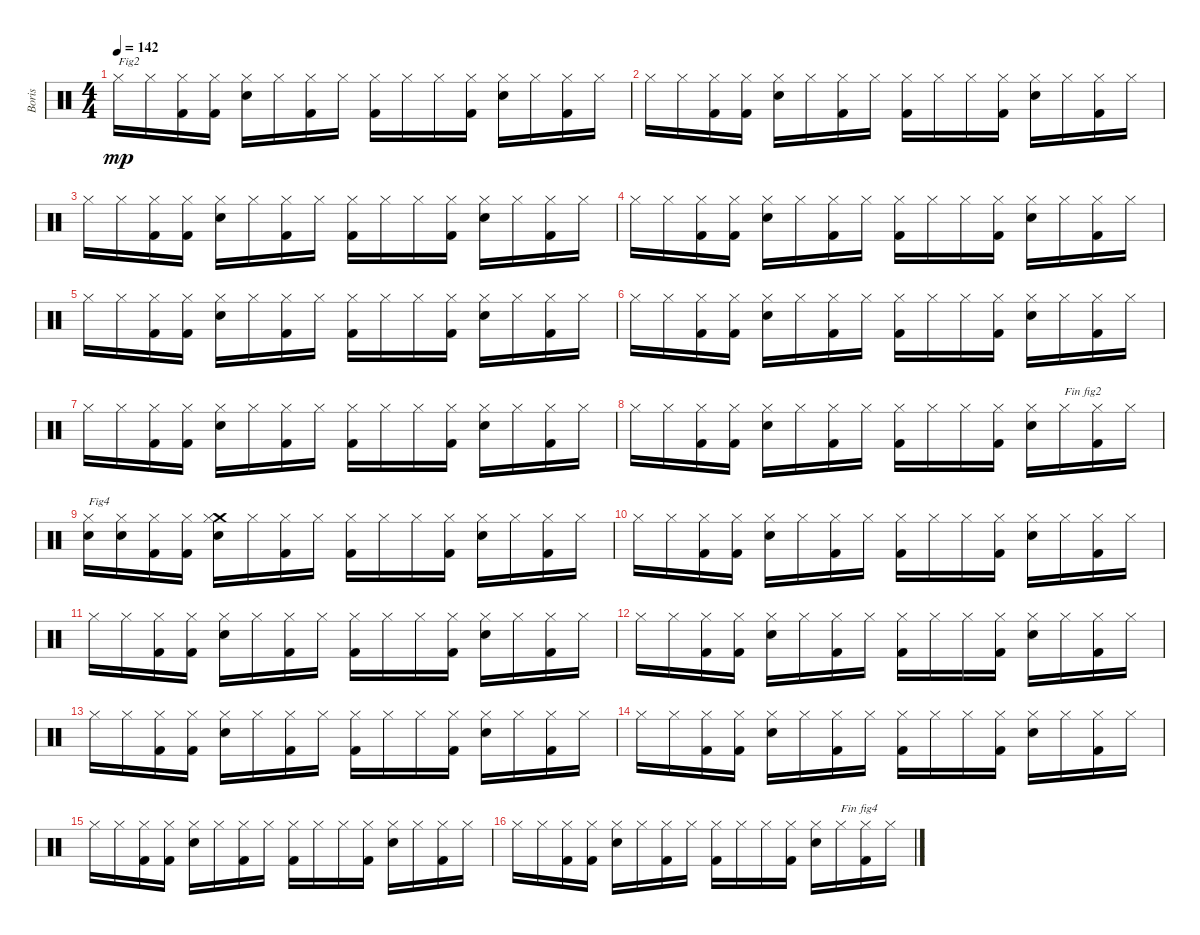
\track ("Boris" "Boris") {instrument percussion}
\staff {score}
\articulation defaults
\ts (4 4)
\tempo 142
\clef neutral
\ks c "Hi-Hat (closed)".16{txt "Fig2" dy mp} "Hi-Hat (closed)".16
("Kick (hit) 2" "Hi-Hat (closed)").16 ("Kick (hit) 2" "Hi-Hat (closed)").16 ("Snare (hit) 2" "Hi-Hat (closed)").16 "Hi-Hat (closed)".16 ("Kick (hit) 2" "Hi-Hat (closed)").16 "Hi-Hat (closed)".16 ("Kick (hit) 2" "Hi-Hat (closed)").16 "Hi-Hat (closed)".16 "Hi-Hat (closed)".16 ("Kick (hit) 2" "Hi-Hat (closed)").16 ("Snare (hit) 2" "Hi-Hat (closed)").16 "Hi-Hat (closed)".16 ("Kick (hit) 2" "Hi-Hat (closed)").16 "Hi-Hat (closed)".16 |
"Hi-Hat (closed)".16 "Hi-Hat (closed)".16 ("Kick (hit) 2" "Hi-Hat (closed)").16 ("Kick (hit) 2" "Hi-Hat (closed)").16 ("Snare (hit) 2" "Hi-Hat (closed)").16 "Hi-Hat (closed)".16 ("Kick (hit) 2" "Hi-Hat (closed)").16 "Hi-Hat (closed)".16 ("Kick (hit) 2" "Hi-Hat (closed)").16 "Hi-Hat (closed)".16 "Hi-Hat (closed)".16 ("Kick (hit) 2" "Hi-Hat (closed)").16 ("Snare (hit) 2" "Hi-Hat (closed)").16 "Hi-Hat (closed)".16 ("Kick (hit) 2" "Hi-Hat (closed)").16 "Hi-Hat (closed)".16 |
"Hi-Hat (closed)".16 "Hi-Hat (closed)".16 ("Kick (hit) 2" "Hi-Hat (closed)").16 ("Kick (hit) 2" "Hi-Hat (closed)").16 ("Snare (hit) 2" "Hi-Hat (closed)").16 "Hi-Hat (closed)".16 ("Kick (hit) 2" "Hi-Hat (closed)").16 "Hi-Hat (closed)".16 ("Kick (hit) 2" "Hi-Hat (closed)").16 "Hi-Hat (closed)".16 "Hi-Hat (closed)".16 ("Kick (hit) 2" "Hi-Hat (closed)").16 ("Snare (hit) 2" "Hi-Hat (closed)").16 "Hi-Hat (closed)".16 ("Kick (hit) 2" "Hi-Hat (closed)").16 "Hi-Hat (closed)".16 |
"Hi-Hat (closed)".16 "Hi-Hat (closed)".16 ("Kick (hit) 2" "Hi-Hat (closed)").16 ("Kick (hit) 2" "Hi-Hat (closed)").16 ("Snare (hit) 2" "Hi-Hat (closed)").16 "Hi-Hat (closed)".16 ("Kick (hit) 2" "Hi-Hat (closed)").16 "Hi-Hat (closed)".16 ("Kick (hit) 2" "Hi-Hat (closed)").16 "Hi-Hat (closed)".16 "Hi-Hat (closed)".16 ("Kick (hit) 2" "Hi-Hat (closed)").16 ("Snare (hit) 2" "Hi-Hat (closed)").16 "Hi-Hat (closed)".16 ("Kick (hit) 2" "Hi-Hat (closed)").16 "Hi-Hat (closed)".16 |
"Hi-Hat (closed)".16 "Hi-Hat (closed)".16 ("Kick (hit) 2" "Hi-Hat (closed)").16 ("Kick (hit) 2" "Hi-Hat (closed)").16 ("Snare (hit) 2" "Hi-Hat (closed)").16 "Hi-Hat (closed)".16 ("Kick (hit) 2" "Hi-Hat (closed)").16 "Hi-Hat (closed)".16 ("Kick (hit) 2" "Hi-Hat (closed)").16 "Hi-Hat (closed)".16 "Hi-Hat (closed)".16 ("Kick (hit) 2" "Hi-Hat (closed)").16 ("Snare (hit) 2" "Hi-Hat (closed)").16 "Hi-Hat (closed)".16 ("Kick (hit) 2" "Hi-Hat (closed)").16 "Hi-Hat (closed)".16 |
"Hi-Hat (closed)".16 "Hi-Hat (closed)".16 ("Kick (hit) 2" "Hi-Hat (closed)").16 ("Kick (hit) 2" "Hi-Hat (closed)").16 ("Snare (hit) 2" "Hi-Hat (closed)").16 "Hi-Hat (closed)".16 ("Kick (hit) 2" "Hi-Hat (closed)").16 "Hi-Hat (closed)".16 ("Kick (hit) 2" "Hi-Hat (closed)").16 "Hi-Hat (closed)".16 "Hi-Hat (closed)".16 ("Kick (hit) 2" "Hi-Hat (closed)").16 ("Snare (hit) 2" "Hi-Hat (closed)").16 "Hi-Hat (closed)".16 ("Kick (hit) 2" "Hi-Hat (closed)").16 "Hi-Hat (closed)".16 |
"Hi-Hat (closed)".16 "Hi-Hat (closed)".16 ("Kick (hit) 2" "Hi-Hat (closed)").16 ("Kick (hit) 2" "Hi-Hat (closed)").16 ("Snare (hit) 2" "Hi-Hat (closed)").16 "Hi-Hat (closed)".16 ("Kick (hit) 2" "Hi-Hat (closed)").16 "Hi-Hat (closed)".16 ("Kick (hit) 2" "Hi-Hat (closed)").16 "Hi-Hat (closed)".16 "Hi-Hat (closed)".16 ("Kick (hit) 2" "Hi-Hat (closed)").16 ("Snare (hit) 2" "Hi-Hat (closed)").16 "Hi-Hat (closed)".16 ("Kick (hit) 2" "Hi-Hat (closed)").16 "Hi-Hat (closed)".16 |
"Hi-Hat (closed)".16 "Hi-Hat (closed)".16 ("Kick (hit) 2" "Hi-Hat (closed)").16 ("Kick (hit) 2" "Hi-Hat (closed)").16 ("Snare (hit) 2" "Hi-Hat (closed)").16 "Hi-Hat (closed)".16 ("Kick (hit) 2" "Hi-Hat (closed)").16 "Hi-Hat (closed)".16 ("Kick (hit) 2" "Hi-Hat (closed)").16 "Hi-Hat (closed)".16 "Hi-Hat (closed)".16 ("Kick (hit) 2" "Hi-Hat (closed)").16 ("Snare (hit) 2" "Hi-Hat (closed)").16 "Hi-Hat (closed)".16{txt "Fin fig2"} ("Kick (hit) 2" "Hi-Hat (closed)").16 "Hi-Hat (closed)".16 |
("Snare (hit) 2" "Hi-Hat (closed)").16{txt "Fig4"} ("Snare (hit) 2" "Hi-Hat (closed)").16 ("Kick (hit) 2" "Hi-Hat (closed)").16 ("Kick (hit) 2" "Hi-Hat (closed)").16 ("Snare (hit) 2" "Crash medium (hit)" "Hi-Hat (closed)").16 "Hi-Hat (closed)".16 ("Kick (hit) 2" "Hi-Hat (closed)").16 "Hi-Hat (closed)".16 ("Kick (hit) 2" "Hi-Hat (closed)").16 "Hi-Hat (closed)".16 "Hi-Hat (closed)".16 ("Kick (hit) 2" "Hi-Hat (closed)").16 ("Snare (hit) 2" "Hi-Hat (closed)").16 "Hi-Hat (closed)".16 ("Kick (hit) 2" "Hi-Hat (closed)").16 "Hi-Hat (closed)".16 |
"Hi-Hat (closed)".16 "Hi-Hat (closed)".16 ("Kick (hit) 2" "Hi-Hat (closed)").16 ("Kick (hit) 2" "Hi-Hat (closed)").16 ("Snare (hit) 2" "Hi-Hat (closed)").16 "Hi-Hat (closed)".16 ("Kick (hit) 2" "Hi-Hat (closed)").16 "Hi-Hat (closed)".16 ("Kick (hit) 2" "Hi-Hat (closed)").16 "Hi-Hat (closed)".16 "Hi-Hat (closed)".16 ("Kick (hit) 2" "Hi-Hat (closed)").16 ("Snare (hit) 2" "Hi-Hat (closed)").16 "Hi-Hat (closed)".16 ("Kick (hit) 2" "Hi-Hat (closed)").16 "Hi-Hat (closed)".16 |
"Hi-Hat (closed)".16 "Hi-Hat (closed)".16 ("Kick (hit) 2" "Hi-Hat (closed)").16 ("Kick (hit) 2" "Hi-Hat (closed)").16 ("Snare (hit) 2" "Hi-Hat (closed)").16 "Hi-Hat (closed)".16 ("Kick (hit) 2" "Hi-Hat (closed)").16 "Hi-Hat (closed)".16 ("Kick (hit) 2" "Hi-Hat (closed)").16 "Hi-Hat (closed)".16 "Hi-Hat (closed)".16 ("Kick (hit) 2" "Hi-Hat (closed)").16 ("Snare (hit) 2" "Hi-Hat (closed)").16 "Hi-Hat (closed)".16 ("Kick (hit) 2" "Hi-Hat (closed)").16 "Hi-Hat (closed)".16 |
"Hi-Hat (closed)".16 "Hi-Hat (closed)".16 ("Kick (hit) 2" "Hi-Hat (closed)").16 ("Kick (hit) 2" "Hi-Hat (closed)").16 ("Snare (hit) 2" "Hi-Hat (closed)").16 "Hi-Hat (closed)".16 ("Kick (hit) 2" "Hi-Hat (closed)").16 "Hi-Hat (closed)".16 ("Kick (hit) 2" "Hi-Hat (closed)").16 "Hi-Hat (closed)".16 "Hi-Hat (closed)".16 ("Kick (hit) 2" "Hi-Hat (closed)").16 ("Snare (hit) 2" "Hi-Hat (closed)").16 "Hi-Hat (closed)".16 ("Kick (hit) 2" "Hi-Hat (closed)").16 "Hi-Hat (closed)".16 |
"Hi-Hat (closed)".16 "Hi-Hat (closed)".16 ("Kick (hit) 2" "Hi-Hat (closed)").16 ("Kick (hit) 2" "Hi-Hat (closed)").16 ("Snare (hit) 2" "Hi-Hat (closed)").16 "Hi-Hat (closed)".16 ("Kick (hit) 2" "Hi-Hat (closed)").16 "Hi-Hat (closed)".16 ("Kick (hit) 2" "Hi-Hat (closed)").16 "Hi-Hat (closed)".16 "Hi-Hat (closed)".16 ("Kick (hit) 2" "Hi-Hat (closed)").16 ("Snare (hit) 2" "Hi-Hat (closed)").16 "Hi-Hat (closed)".16 ("Kick (hit) 2" "Hi-Hat (closed)").16 "Hi-Hat (closed)".16 |
"Hi-Hat (closed)".16 "Hi-Hat (closed)".16 ("Kick (hit) 2" "Hi-Hat (closed)").16 ("Kick (hit) 2" "Hi-Hat (closed)").16 ("Snare (hit) 2" "Hi-Hat (closed)").16 "Hi-Hat (closed)".16 ("Kick (hit) 2" "Hi-Hat (closed)").16 "Hi-Hat (closed)".16 ("Kick (hit) 2" "Hi-Hat (closed)").16 "Hi-Hat (closed)".16 "Hi-Hat (closed)".16 ("Kick (hit) 2" "Hi-Hat (closed)").16 ("Snare (hit) 2" "Hi-Hat (closed)").16 "Hi-Hat (closed)".16 ("Kick (hit) 2" "Hi-Hat (closed)").16 "Hi-Hat (closed)".16 |
"Hi-Hat (closed)".16 "Hi-Hat (closed)".16 ("Kick (hit) 2" "Hi-Hat (closed)").16 ("Kick (hit) 2" "Hi-Hat (closed)").16 ("Snare (hit) 2" "Hi-Hat (closed)").16 "Hi-Hat (closed)".16 ("Kick (hit) 2" "Hi-Hat (closed)").16 "Hi-Hat (closed)".16 ("Kick (hit) 2" "Hi-Hat (closed)").16 "Hi-Hat (closed)".16 "Hi-Hat (closed)".16 ("Kick (hit) 2" "Hi-Hat (closed)").16 ("Snare (hit) 2" "Hi-Hat (closed)").16 "Hi-Hat (closed)".16 ("Kick (hit) 2" "Hi-Hat (closed)").16 "Hi-Hat (closed)".16 |
"Hi-Hat (closed)".16 "Hi-Hat (closed)".16 ("Kick (hit) 2" "Hi-Hat (closed)").16 ("Kick (hit) 2" "Hi-Hat (closed)").16 ("Snare (hit) 2" "Hi-Hat (closed)").16 "Hi-Hat (closed)".16 ("Kick (hit) 2" "Hi-Hat (closed)").16 "Hi-Hat (closed)".16 ("Kick (hit) 2" "Hi-Hat (closed)").16 "Hi-Hat (closed)".16 "Hi-Hat (closed)".16 ("Kick (hit) 2" "Hi-Hat (closed)").16 ("Snare (hit) 2" "Hi-Hat (closed)").16 "Hi-Hat (closed)".16{txt "Fin fig4"} ("Kick (hit) 2" "Hi-Hat (closed)").16 "Hi-Hat (closed)".16
